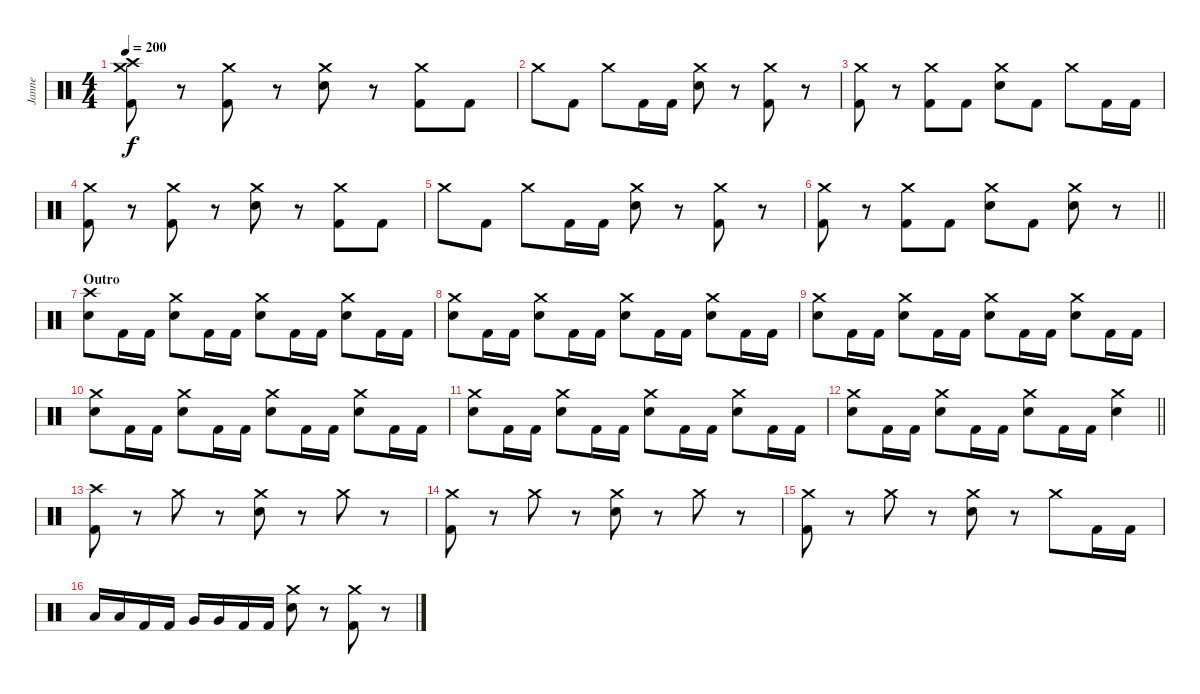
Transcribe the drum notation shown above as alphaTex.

\track ("Janne" "Janne") {instrument percussion}
\staff {score}
\articulation defaults
\ts (4 4)
\tempo 200
\clef neutral
\ks c
("Crash high (hit)" "Crash medium (hit)" "Kick (hit) 2").8{dy f} r.8 ("Crash medium (hit)" "Kick (hit) 2").8 r.8 ("Crash medium (hit)" "Electric Snare (hit)").8 r.8 ("Crash medium (hit)" "Kick (hit) 2").8 "Kick (hit) 2".8 |
"Crash medium (hit)".8 "Kick (hit) 2".8 "Crash medium (hit)".8 "Kick (hit) 2".16 "Kick (hit) 2".16 ("Crash medium (hit)" "Electric Snare (hit)").8 r.8 ("Crash medium (hit)" "Kick (hit) 2").8 r.8 |
("Crash medium (hit)" "Kick (hit) 2").8 r.8 ("Crash medium (hit)" "Kick (hit) 2").8 "Kick (hit) 2".8 ("Crash medium (hit)" "Electric Snare (hit)").8 "Kick (hit) 2".8 "Crash medium (hit)".8 "Kick (hit) 2".16 "Kick (hit) 2".16 |
("Crash medium (hit)" "Kick (hit) 2").8 r.8 ("Crash medium (hit)" "Kick (hit) 2").8 r.8 ("Crash medium (hit)" "Electric Snare (hit)").8 r.8 ("Crash medium (hit)" "Kick (hit) 2").8 "Kick (hit) 2".8 |
"Crash medium (hit)".8 "Kick (hit) 2".8 "Crash medium (hit)".8 "Kick (hit) 2".16 "Kick (hit) 2".16 ("Crash medium (hit)" "Electric Snare (hit)").8 r.8 ("Crash medium (hit)" "Kick (hit) 2").8 r.8 |
\barLineRight lightlight
("Crash medium (hit)" "Kick (hit) 2").8 r.8 ("Crash medium (hit)" "Kick (hit) 2").8 "Kick (hit) 2".8 ("Crash medium (hit)" "Electric Snare (hit)").8 "Kick (hit) 2".8 ("Crash medium (hit)" "Electric Snare (hit)").8 r.8 |
\section ("" "Outro")
("Crash high (hit)" "Electric Snare (hit)").8 "Kick (hit) 2".16 "Kick (hit) 2".16 ("Crash medium (hit)" "Electric Snare (hit)").8 "Kick (hit) 2".16 "Kick (hit) 2".16 ("Crash medium (hit)" "Electric Snare (hit)").8 "Kick (hit) 2".16 "Kick (hit) 2".16 ("Crash medium (hit)" "Electric Snare (hit)").8 "Kick (hit) 2".16 "Kick (hit) 2".16 |
("Crash medium (hit)" "Electric Snare (hit)").8 "Kick (hit) 2".16 "Kick (hit) 2".16 ("Crash medium (hit)" "Electric Snare (hit)").8 "Kick (hit) 2".16 "Kick (hit) 2".16 ("Crash medium (hit)" "Electric Snare (hit)").8 "Kick (hit) 2".16 "Kick (hit) 2".16 ("Crash medium (hit)" "Electric Snare (hit)").8 "Kick (hit) 2".16 "Kick (hit) 2".16 |
("Crash medium (hit)" "Electric Snare (hit)").8 "Kick (hit) 2".16 "Kick (hit) 2".16 ("Crash medium (hit)" "Electric Snare (hit)").8 "Kick (hit) 2".16 "Kick (hit) 2".16 ("Crash medium (hit)" "Electric Snare (hit)").8 "Kick (hit) 2".16 "Kick (hit) 2".16 ("Crash medium (hit)" "Electric Snare (hit)").8 "Kick (hit) 2".16 "Kick (hit) 2".16 |
("Crash medium (hit)" "Electric Snare (hit)").8 "Kick (hit) 2".16 "Kick (hit) 2".16 ("Crash medium (hit)" "Electric Snare (hit)").8 "Kick (hit) 2".16 "Kick (hit) 2".16 ("Crash medium (hit)" "Electric Snare (hit)").8 "Kick (hit) 2".16 "Kick (hit) 2".16 ("Crash medium (hit)" "Electric Snare (hit)").8 "Kick (hit) 2".16 "Kick (hit) 2".16 |
("Crash medium (hit)" "Electric Snare (hit)").8 "Kick (hit) 2".16 "Kick (hit) 2".16 ("Crash medium (hit)" "Electric Snare (hit)").8 "Kick (hit) 2".16 "Kick (hit) 2".16 ("Crash medium (hit)" "Electric Snare (hit)").8 "Kick (hit) 2".16 "Kick (hit) 2".16 ("Crash medium (hit)" "Electric Snare (hit)").8 "Kick (hit) 2".16 "Kick (hit) 2".16 |
\barLineRight lightlight
("Crash medium (hit)" "Electric Snare (hit)").8 "Kick (hit) 2".16 "Kick (hit) 2".16 ("Crash medium (hit)" "Electric Snare (hit)").8 "Kick (hit) 2".16 "Kick (hit) 2".16 ("Crash medium (hit)" "Electric Snare (hit)").8 "Kick (hit) 2".16 "Kick (hit) 2".16 ("Crash medium (hit)" "Electric Snare (hit)").4 |
\section ("" "")
("Crash high (hit)" "Kick (hit) 2").8 r.8 "Crash medium (hit)".8 r.8 ("Crash medium (hit)" "Electric Snare (hit)").8 r.8 "Crash medium (hit)".8 r.8 |
("Crash medium (hit)" "Kick (hit) 2").8 r.8 "Crash medium (hit)".8 r.8 ("Crash medium (hit)" "Electric Snare (hit)").8 r.8 "Crash medium (hit)".8 r.8 |
("Crash medium (hit)" "Kick (hit) 2").8 r.8 "Crash medium (hit)".8 r.8 ("Crash medium (hit)" "Electric Snare (hit)").8 r.8 "Crash medium (hit)".8 "Kick (hit) 2".16 "Kick (hit) 2".16 |
"Low Tom (hit)".16 "Low Tom (hit)".16 "Kick (hit) 2".16 "Kick (hit) 2".16 "Very Low Tom (hit)".16 "Very Low Tom (hit)".16 "Kick (hit) 2".16 "Kick (hit) 2".16 ("Crash medium (hit)" "Electric Snare (hit)").8 r.8 ("Crash medium (hit)" "Kick (hit) 2").8 r.8
